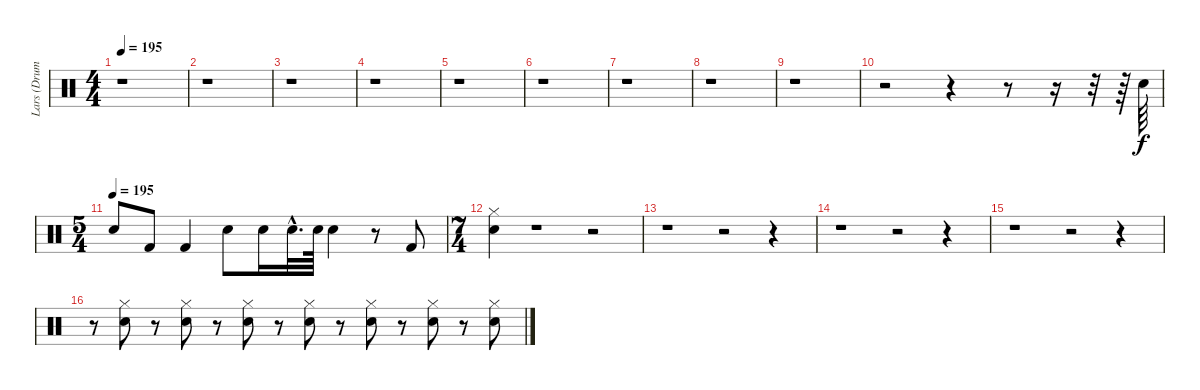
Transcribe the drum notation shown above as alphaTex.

\track ("Lars (Drums)" "Lars (Drum") {instrument percussion}
\staff {score}
\articulation defaults
\ts (4 4)
\tempo 195
\tempo 72
\tempo 195
\clef neutral
\ks c
r.1{dy f} |
r.1 |
r.1 |
r.1 |
r.1 |
r.1 |
r.1 |
r.1 |
r.1 |
r.2 r.4 r.8 r.16 r.32 r.64 "Snare (hit) 2".64 |
\ts (5 4)
\tempo (195)
"Snare (hit) 2".8 "Kick (hit) 2".8 "Kick (hit) 2".4 "Snare (hit) 2".8 "Snare (hit) 2".16 "Snare (hit) 2"{hac}.32{d} "Snare (hit) 2".64 "Snare (hit) 2".4 r.8 "Kick (hit) 2".8 |
\ts (7 4)
("Snare (hit) 2" "Hi-Hat (closed)").4 r.1 r.2 |
r.1 r.2 r.4 |
r.1 r.2 r.4 |
r.1 r.2 r.4 |
r.8 ("Snare (hit) 2" "Hi-Hat (closed)").8 r.8 ("Snare (hit) 2" "Hi-Hat (closed)").8 r.8 ("Snare (hit) 2" "Hi-Hat (closed)").8 r.8 ("Snare (hit) 2" "Hi-Hat (closed)").8 r.8 ("Snare (hit) 2" "Hi-Hat (closed)").8 r.8 ("Snare (hit) 2" "Hi-Hat (closed)").8 r.8 ("Snare (hit) 2" "Hi-Hat (closed)").8
